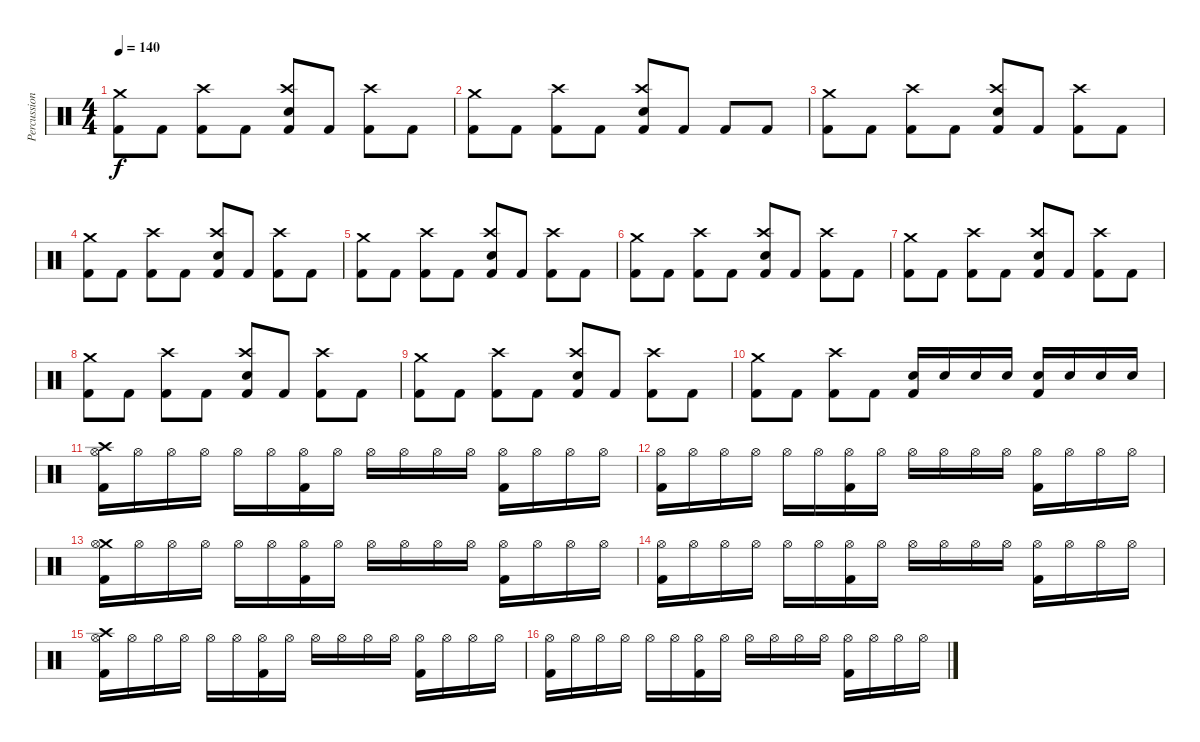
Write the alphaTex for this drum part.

\track ("Percussion" "Percussion") {instrument percussion}
\staff {score}
\articulation defaults
\ts (4 4)
\tempo 140
\clef neutral
\ks c
("Crash medium (hit)" "Kick (hit) 2").8{dy f} "Kick (hit) 2".8 ("Crash high (hit)" "Kick (hit) 2").8 "Kick (hit) 2".8 ("Crash high (hit)" "Electric Snare (hit)" "Kick (hit) 2").8 "Kick (hit) 2".8 ("Crash high (hit)" "Kick (hit) 2").8 "Kick (hit) 2".8 |
("Crash medium (hit)" "Kick (hit) 2").8 "Kick (hit) 2".8 ("Crash high (hit)" "Kick (hit) 2").8 "Kick (hit) 2".8 ("Crash high (hit)" "Electric Snare (hit)" "Kick (hit) 2").8 "Kick (hit) 2".8 "Kick (hit) 2".8 "Kick (hit) 2".8 |
("Crash medium (hit)" "Kick (hit) 2").8 "Kick (hit) 2".8 ("Crash high (hit)" "Kick (hit) 2").8 "Kick (hit) 2".8 ("Crash high (hit)" "Electric Snare (hit)" "Kick (hit) 2").8 "Kick (hit) 2".8 ("Crash high (hit)" "Kick (hit) 2").8 "Kick (hit) 2".8 |
("Crash medium (hit)" "Kick (hit) 2").8 "Kick (hit) 2".8 ("Crash high (hit)" "Kick (hit) 2").8 "Kick (hit) 2".8 ("Crash high (hit)" "Electric Snare (hit)" "Kick (hit) 2").8 "Kick (hit) 2".8 ("Crash high (hit)" "Kick (hit) 2").8 "Kick (hit) 2".8 |
("Crash medium (hit)" "Kick (hit) 2").8 "Kick (hit) 2".8 ("Crash high (hit)" "Kick (hit) 2").8 "Kick (hit) 2".8 ("Crash high (hit)" "Electric Snare (hit)" "Kick (hit) 2").8 "Kick (hit) 2".8 ("Crash high (hit)" "Kick (hit) 2").8 "Kick (hit) 2".8 |
("Crash medium (hit)" "Kick (hit) 2").8 "Kick (hit) 2".8 ("Crash high (hit)" "Kick (hit) 2").8 "Kick (hit) 2".8 ("Crash high (hit)" "Electric Snare (hit)" "Kick (hit) 2").8 "Kick (hit) 2".8 ("Crash high (hit)" "Kick (hit) 2").8 "Kick (hit) 2".8 |
("Crash medium (hit)" "Kick (hit) 2").8 "Kick (hit) 2".8 ("Crash high (hit)" "Kick (hit) 2").8 "Kick (hit) 2".8 ("Crash high (hit)" "Electric Snare (hit)" "Kick (hit) 2").8 "Kick (hit) 2".8 ("Crash high (hit)" "Kick (hit) 2").8 "Kick (hit) 2".8 |
("Crash medium (hit)" "Kick (hit) 2").8 "Kick (hit) 2".8 ("Crash high (hit)" "Kick (hit) 2").8 "Kick (hit) 2".8 ("Crash high (hit)" "Electric Snare (hit)" "Kick (hit) 2").8 "Kick (hit) 2".8 ("Crash high (hit)" "Kick (hit) 2").8 "Kick (hit) 2".8 |
("Crash medium (hit)" "Kick (hit) 2").8 "Kick (hit) 2".8 ("Crash high (hit)" "Kick (hit) 2").8 "Kick (hit) 2".8 ("Crash high (hit)" "Electric Snare (hit)" "Kick (hit) 2").8 "Kick (hit) 2".8 ("Crash high (hit)" "Kick (hit) 2").8 "Kick (hit) 2".8 |
("Crash medium (hit)" "Kick (hit) 2").8 "Kick (hit) 2".8 ("Crash high (hit)" "Kick (hit) 2").8 "Kick (hit) 2".8 ("Electric Snare (hit)" "Kick (hit) 2").16 "Electric Snare (hit)".16 "Electric Snare (hit)".16 "Electric Snare (hit)".16 ("Electric Snare (hit)" "Kick (hit) 2").16 "Electric Snare (hit)".16 "Electric Snare (hit)".16 "Electric Snare (hit)".16 |
("Crash high (hit)" "Hi-Hat (open)" "Kick (hit) 2").16 "Hi-Hat (open)".16 "Hi-Hat (open)".16 "Hi-Hat (open)".16 "Hi-Hat (open)".16 "Hi-Hat (open)".16 ("Hi-Hat (open)" "Kick (hit) 2").16 "Hi-Hat (open)".16 "Hi-Hat (open)".16 "Hi-Hat (open)".16 "Hi-Hat (open)".16 "Hi-Hat (open)".16 ("Hi-Hat (open)" "Kick (hit) 2").16 "Hi-Hat (open)".16 "Hi-Hat (open)".16 "Hi-Hat (open)".16 |
("Hi-Hat (open)" "Kick (hit) 2").16 "Hi-Hat (open)".16 "Hi-Hat (open)".16 "Hi-Hat (open)".16 "Hi-Hat (open)".16 "Hi-Hat (open)".16 ("Hi-Hat (open)" "Kick (hit) 2").16 "Hi-Hat (open)".16 "Hi-Hat (open)".16 "Hi-Hat (open)".16 "Hi-Hat (open)".16 "Hi-Hat (open)".16 ("Hi-Hat (open)" "Kick (hit) 2").16 "Hi-Hat (open)".16 "Hi-Hat (open)".16 "Hi-Hat (open)".16 |
("Crash medium (hit)" "Hi-Hat (open)" "Kick (hit) 2").16 "Hi-Hat (open)".16 "Hi-Hat (open)".16 "Hi-Hat (open)".16 "Hi-Hat (open)".16 "Hi-Hat (open)".16 ("Hi-Hat (open)" "Kick (hit) 2").16 "Hi-Hat (open)".16 "Hi-Hat (open)".16 "Hi-Hat (open)".16 "Hi-Hat (open)".16 "Hi-Hat (open)".16 ("Hi-Hat (open)" "Kick (hit) 2").16 "Hi-Hat (open)".16 "Hi-Hat (open)".16 "Hi-Hat (open)".16 |
("Hi-Hat (open)" "Kick (hit) 2").16 "Hi-Hat (open)".16 "Hi-Hat (open)".16 "Hi-Hat (open)".16 "Hi-Hat (open)".16 "Hi-Hat (open)".16 ("Hi-Hat (open)" "Kick (hit) 2").16 "Hi-Hat (open)".16 "Hi-Hat (open)".16 "Hi-Hat (open)".16 "Hi-Hat (open)".16 "Hi-Hat (open)".16 ("Hi-Hat (open)" "Kick (hit) 2").16 "Hi-Hat (open)".16 "Hi-Hat (open)".16 "Hi-Hat (open)".16 |
("Crash high (hit)" "Hi-Hat (open)" "Kick (hit) 2").16 "Hi-Hat (open)".16 "Hi-Hat (open)".16 "Hi-Hat (open)".16 "Hi-Hat (open)".16 "Hi-Hat (open)".16 ("Hi-Hat (open)" "Kick (hit) 2").16 "Hi-Hat (open)".16 "Hi-Hat (open)".16 "Hi-Hat (open)".16 "Hi-Hat (open)".16 "Hi-Hat (open)".16 ("Hi-Hat (open)" "Kick (hit) 2").16 "Hi-Hat (open)".16 "Hi-Hat (open)".16 "Hi-Hat (open)".16 |
("Hi-Hat (open)" "Kick (hit) 2").16 "Hi-Hat (open)".16 "Hi-Hat (open)".16 "Hi-Hat (open)".16 "Hi-Hat (open)".16 "Hi-Hat (open)".16 ("Hi-Hat (open)" "Kick (hit) 2").16 "Hi-Hat (open)".16 "Hi-Hat (open)".16 "Hi-Hat (open)".16 "Hi-Hat (open)".16 "Hi-Hat (open)".16 ("Hi-Hat (open)" "Kick (hit) 2").16 "Hi-Hat (open)".16 "Hi-Hat (open)".16 "Hi-Hat (open)".16
